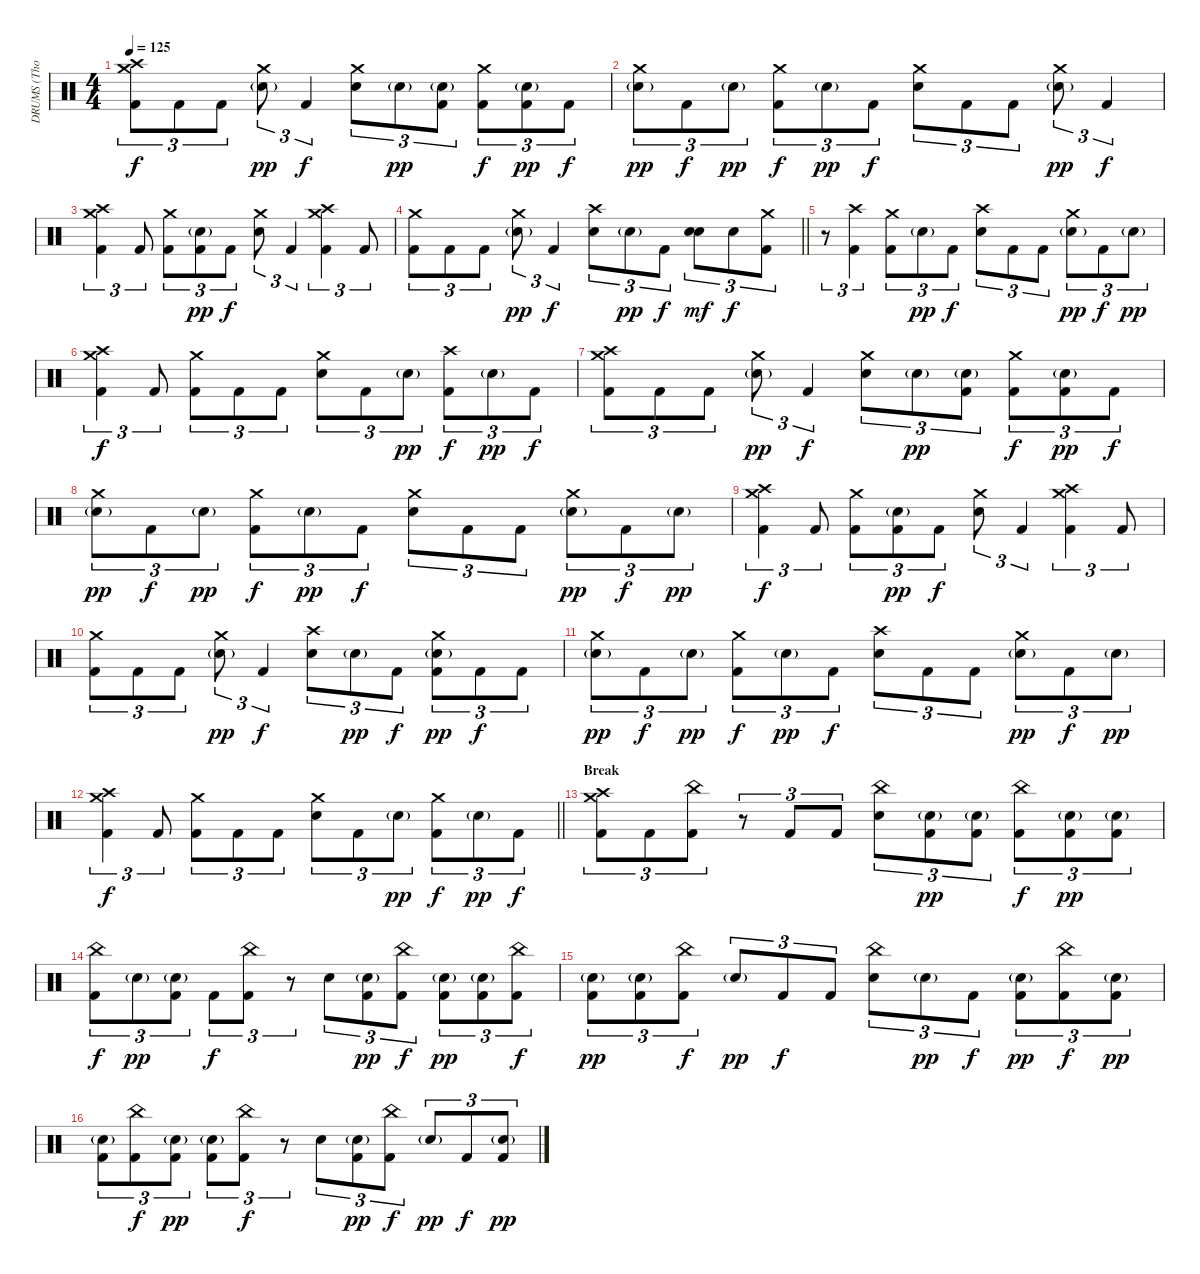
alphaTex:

\track ("DRUMS (Thomas Haake)" "DRUMS (Tho") {instrument percussion}
\staff {score}
\articulation defaults
\ts (4 4)
\tempo 125
\clef neutral
\ks c
("Crash high (hit)" "Crash medium (hit)" "Kick (hit) 2").8{tu (3 2) dy f} "Kick (hit) 2".8{tu (3 2)} "Kick (hit) 2".8{tu (3 2)} ("Crash medium (hit)" "Electric Snare (hit)"{g}).8{tu (3 2) dy pp} "Kick (hit) 2".4{tu (3 2) dy f} ("Crash medium (hit)" "Electric Snare (hit)").8{tu (3 2)} "Electric Snare (hit)"{g}.8{tu (3 2) dy pp} ("Electric Snare (hit)"{g} "Kick (hit) 2").8{tu (3 2)} ("Crash medium (hit)" "Kick (hit) 2").8{tu (3 2) dy f} ("Electric Snare (hit)"{g} "Kick (hit) 2").8{tu (3 2) dy pp} "Kick (hit) 2".8{tu (3 2) dy f} |
("Crash medium (hit)" "Electric Snare (hit)"{g}).8{tu (3 2) dy pp} "Kick (hit) 2".8{tu (3 2) dy f} "Electric Snare (hit)"{g}.8{tu (3 2) dy pp} ("Crash medium (hit)" "Kick (hit) 2").8{tu (3 2) dy f} "Electric Snare (hit)"{g}.8{tu (3 2) dy pp} "Kick (hit) 2".8{tu (3 2) dy f} ("Crash medium (hit)" "Electric Snare (hit)").8{tu (3 2)} "Kick (hit) 2".8{tu (3 2)} "Kick (hit) 2".8{tu (3 2)} ("Crash medium (hit)" "Electric Snare (hit)"{g}).8{tu (3 2) dy pp} "Kick (hit) 2".4{tu (3 2) dy f} |
("Crash medium (hit)" "Crash high (hit)" "Kick (hit) 2").4{tu (3 2)} "Kick (hit) 2".8{tu (3 2)} ("Crash medium (hit)" "Kick (hit) 2").8{tu (3 2)} ("Electric Snare (hit)"{g} "Kick (hit) 2").8{tu (3 2) dy pp} "Kick (hit) 2".8{tu (3 2) dy f} ("Crash medium (hit)" "Electric Snare (hit)").8{tu (3 2)} "Kick (hit) 2".4{tu (3 2)} ("Crash medium (hit)" "Crash high (hit)" "Kick (hit) 2").4{tu (3 2)} "Kick (hit) 2".8{tu (3 2)} |
\barLineRight lightlight
("Crash medium (hit)" "Kick (hit) 2").8{tu (3 2)} "Kick (hit) 2".8{tu (3 2)} "Kick (hit) 2".8{tu (3 2)} ("Crash medium (hit)" "Electric Snare (hit)"{g}).8{tu (3 2) dy pp} "Kick (hit) 2".4{tu (3 2) dy f} ("Crash high (hit)" "Electric Snare (hit)").8{tu (3 2)} "Electric Snare (hit)"{g}.8{tu (3 2) dy pp} "Kick (hit) 2".8{tu (3 2) dy f} ("Electric Snare (hit)" "Electric Snare (hit)").8{tu (3 2) bd 120 dy mf} "Electric Snare (hit)".8{tu (3 2) dy f} ("Crash medium (hit)" "Kick (hit) 2").8{tu (3 2)} |
r.8{tu (3 2)} ("Crash high (hit)" "Kick (hit) 2").4{tu (3 2)} ("Crash medium (hit)" "Kick (hit) 2").8{tu (3 2)} "Electric Snare (hit)"{g}.8{tu (3 2) dy pp} "Kick (hit) 2".8{tu (3 2) dy f} ("Crash high (hit)" "Electric Snare (hit)").8{tu (3 2)} "Kick (hit) 2".8{tu (3 2)} "Kick (hit) 2".8{tu (3 2)} ("Crash medium (hit)" "Electric Snare (hit)"{g}).8{tu (3 2) dy pp} "Kick (hit) 2".8{tu (3 2) dy f} "Electric Snare (hit)"{g}.8{tu (3 2) dy pp} |
("Crash medium (hit)" "Crash high (hit)" "Kick (hit) 2").4{tu (3 2) dy f} "Kick (hit) 2".8{tu (3 2)} ("Crash medium (hit)" "Kick (hit) 2").8{tu (3 2)} "Kick (hit) 2".8{tu (3 2)} "Kick (hit) 2".8{tu (3 2)} ("Crash medium (hit)" "Electric Snare (hit)").8{tu (3 2)} "Kick (hit) 2".8{tu (3 2)} "Electric Snare (hit)"{g}.8{tu (3 2) dy pp} ("Crash high (hit)" "Kick (hit) 2").8{tu (3 2) dy f} "Electric Snare (hit)"{g}.8{tu (3 2) dy pp} "Kick (hit) 2".8{tu (3 2) dy f} |
("Crash high (hit)" "Crash medium (hit)" "Kick (hit) 2").8{tu (3 2)} "Kick (hit) 2".8{tu (3 2)} "Kick (hit) 2".8{tu (3 2)} ("Crash medium (hit)" "Electric Snare (hit)"{g}).8{tu (3 2) dy pp} "Kick (hit) 2".4{tu (3 2) dy f} ("Crash medium (hit)" "Electric Snare (hit)").8{tu (3 2)} "Electric Snare (hit)"{g}.8{tu (3 2) dy pp} ("Electric Snare (hit)"{g} "Kick (hit) 2").8{tu (3 2)} ("Crash medium (hit)" "Kick (hit) 2").8{tu (3 2) dy f} ("Electric Snare (hit)"{g} "Kick (hit) 2").8{tu (3 2) dy pp} "Kick (hit) 2".8{tu (3 2) dy f} |
("Crash medium (hit)" "Electric Snare (hit)"{g}).8{tu (3 2) dy pp} "Kick (hit) 2".8{tu (3 2) dy f} "Electric Snare (hit)"{g}.8{tu (3 2) dy pp} ("Crash medium (hit)" "Kick (hit) 2").8{tu (3 2) dy f} "Electric Snare (hit)"{g}.8{tu (3 2) dy pp} "Kick (hit) 2".8{tu (3 2) dy f} ("Crash medium (hit)" "Electric Snare (hit)").8{tu (3 2)} "Kick (hit) 2".8{tu (3 2)} "Kick (hit) 2".8{tu (3 2)} ("Crash medium (hit)" "Electric Snare (hit)"{g}).8{tu (3 2) dy pp} "Kick (hit) 2".8{tu (3 2) dy f} "Electric Snare (hit)"{g}.8{tu (3 2) dy pp} |
("Crash medium (hit)" "Crash high (hit)" "Kick (hit) 2").4{tu (3 2) dy f} "Kick (hit) 2".8{tu (3 2)} ("Crash medium (hit)" "Kick (hit) 2").8{tu (3 2)} ("Electric Snare (hit)"{g} "Kick (hit) 2").8{tu (3 2) dy pp} "Kick (hit) 2".8{tu (3 2) dy f} ("Crash medium (hit)" "Electric Snare (hit)").8{tu (3 2)} "Kick (hit) 2".4{tu (3 2)} ("Crash medium (hit)" "Crash high (hit)" "Kick (hit) 2").4{tu (3 2)} "Kick (hit) 2".8{tu (3 2)} |
("Crash medium (hit)" "Kick (hit) 2").8{tu (3 2)} "Kick (hit) 2".8{tu (3 2)} "Kick (hit) 2".8{tu (3 2)} ("Crash medium (hit)" "Electric Snare (hit)"{g}).8{tu (3 2) dy pp} "Kick (hit) 2".4{tu (3 2) dy f} ("Crash high (hit)" "Electric Snare (hit)").8{tu (3 2)} "Electric Snare (hit)"{g}.8{tu (3 2) dy pp} "Kick (hit) 2".8{tu (3 2) dy f} ("Crash medium (hit)" "Electric Snare (hit)"{g} "Kick (hit) 2").8{tu (3 2) dy pp} "Kick (hit) 2".8{tu (3 2) dy f} "Kick (hit) 2".8{tu (3 2)} |
("Crash medium (hit)" "Electric Snare (hit)"{g}).8{tu (3 2) dy pp} "Kick (hit) 2".8{tu (3 2) dy f} "Electric Snare (hit)"{g}.8{tu (3 2) dy pp} ("Crash medium (hit)" "Kick (hit) 2").8{tu (3 2) dy f} "Electric Snare (hit)"{g}.8{tu (3 2) dy pp} "Kick (hit) 2".8{tu (3 2) dy f} ("Crash high (hit)" "Electric Snare (hit)").8{tu (3 2)} "Kick (hit) 2".8{tu (3 2)} "Kick (hit) 2".8{tu (3 2)} ("Crash medium (hit)" "Electric Snare (hit)"{g}).8{tu (3 2) dy pp} "Kick (hit) 2".8{tu (3 2) dy f} "Electric Snare (hit)"{g}.8{tu (3 2) dy pp} |
\barLineRight lightlight
("Crash medium (hit)" "Crash high (hit)" "Kick (hit) 2").4{tu (3 2) dy f} "Kick (hit) 2".8{tu (3 2)} ("Crash medium (hit)" "Kick (hit) 2").8{tu (3 2)} "Kick (hit) 2".8{tu (3 2)} "Kick (hit) 2".8{tu (3 2)} ("Crash medium (hit)" "Electric Snare (hit)").8{tu (3 2)} "Kick (hit) 2".8{tu (3 2)} "Electric Snare (hit)"{g}.8{tu (3 2) dy pp} ("Crash medium (hit)" "Kick (hit) 2").8{tu (3 2) dy f} "Electric Snare (hit)"{g}.8{tu (3 2) dy pp} "Kick (hit) 2".8{tu (3 2) dy f} |
\section ("" "Break")
("Crash medium (hit)" "Crash high (hit)" "Kick (hit) 2").8{tu (3 2)} "Kick (hit) 2".8{tu (3 2)} ("China (hit)" "Kick (hit) 2").8{tu (3 2)} r.8{tu (3 2)} "Kick (hit) 2".8{tu (3 2)} "Kick (hit) 2".8{tu (3 2)} ("China (hit)" "Electric Snare (hit)").8{tu (3 2)} ("Electric Snare (hit)"{g} "Kick (hit) 2").8{tu (3 2) dy pp} ("Electric Snare (hit)"{g} "Kick (hit) 2").8{tu (3 2)} ("China (hit)" "Kick (hit) 2").8{tu (3 2) dy f} ("Electric Snare (hit)"{g} "Kick (hit) 2").8{tu (3 2) dy pp} ("Electric Snare (hit)"{g} "Kick (hit) 2").8{tu (3 2)} |
("China (hit)" "Kick (hit) 2").8{tu (3 2) dy f} "Electric Snare (hit)"{g}.8{tu (3 2) dy pp} ("Electric Snare (hit)"{g} "Kick (hit) 2").8{tu (3 2)} "Kick (hit) 2".8{tu (3 2) dy f} ("China (hit)" "Kick (hit) 2").8{tu (3 2)} r.8{tu (3 2)} "Electric Snare (hit)".8{tu (3 2)} ("Electric Snare (hit)"{g} "Kick (hit) 2").8{tu (3 2) dy pp} ("China (hit)" "Kick (hit) 2").8{tu (3 2) dy f} ("Electric Snare (hit)"{g} "Kick (hit) 2").8{tu (3 2) dy pp} ("Electric Snare (hit)"{g} "Kick (hit) 2").8{tu (3 2)} ("China (hit)" "Kick (hit) 2").8{tu (3 2) dy f} |
("Electric Snare (hit)"{g} "Kick (hit) 2").8{tu (3 2) dy pp} ("Electric Snare (hit)"{g} "Kick (hit) 2").8{tu (3 2)} ("China (hit)" "Kick (hit) 2").8{tu (3 2) dy f} "Electric Snare (hit)"{g}.8{tu (3 2) dy pp} "Kick (hit) 2".8{tu (3 2) dy f} "Kick (hit) 2".8{tu (3 2)} ("China (hit)" "Electric Snare (hit)").8{tu (3 2)} "Electric Snare (hit)"{g}.8{tu (3 2) dy pp} "Kick (hit) 2".8{tu (3 2) dy f} ("Electric Snare (hit)"{g} "Kick (hit) 2").8{tu (3 2) dy pp} ("China (hit)" "Kick (hit) 2").8{tu (3 2) dy f} ("Electric Snare (hit)"{g} "Kick (hit) 2").8{tu (3 2) dy pp} |
("Electric Snare (hit)"{g} "Kick (hit) 2").8{tu (3 2)} ("China (hit)" "Kick (hit) 2").8{tu (3 2) dy f} ("Electric Snare (hit)"{g} "Kick (hit) 2").8{tu (3 2) dy pp} ("Electric Snare (hit)"{g} "Kick (hit) 2").8{tu (3 2)} ("China (hit)" "Kick (hit) 2").8{tu (3 2) dy f} r.8{tu (3 2)} "Electric Snare (hit)".8{tu (3 2)} ("Electric Snare (hit)"{g} "Kick (hit) 2").8{tu (3 2) dy pp} ("China (hit)" "Kick (hit) 2").8{tu (3 2) dy f} "Electric Snare (hit)"{g}.8{tu (3 2) dy pp} "Kick (hit) 2".8{tu (3 2) dy f} ("Electric Snare (hit)"{g} "Kick (hit) 2").8{tu (3 2) dy pp}
